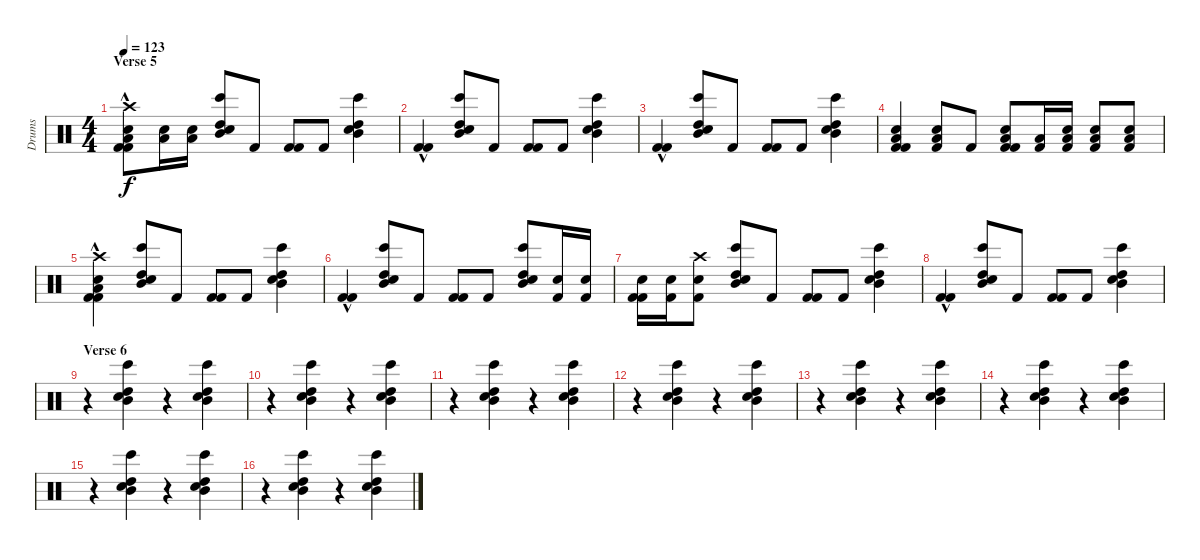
\track ("Drums" "Drums") {instrument percussion}
\staff {score}
\articulation defaults
\ts (4 4)
\section ("" "Verse 5")
\tempo 123
\clef neutral
\ks c
("Crash high (hit)" "Snare (hit) 2" "Low Floor Tom (hit)" "Kick (hit) 2"{hac} "Kick (hit) 2"{hac}).8{dy f} ("Snare (hit) 2" "Low Floor Tom (hit)").16 ("Snare (hit) 2" "Low Floor Tom (hit)").16 ("Bongo High (hit)" "High Tom (hit)" "Mid Tom (hit)" "Snare (hit) 2").8 "Kick (hit) 2".8 ("Kick (hit) 2" "Kick (hit) 2").8 "Kick (hit) 2".8 ("Bongo High (hit)" "High Tom (hit)" "Mid Tom (hit)" "Snare (hit) 2").4 |
("Kick (hit) 2"{hac} "Kick (hit) 2"{hac}).4 ("Bongo High (hit)" "High Tom (hit)" "Mid Tom (hit)" "Snare (hit) 2").8 "Kick (hit) 2".8 ("Kick (hit) 2" "Kick (hit) 2").8 "Kick (hit) 2".8 ("Bongo High (hit)" "High Tom (hit)" "Mid Tom (hit)" "Snare (hit) 2").4 |
("Kick (hit) 2"{hac} "Kick (hit) 2"{hac}).4 ("Bongo High (hit)" "High Tom (hit)" "Mid Tom (hit)" "Snare (hit) 2").8 "Kick (hit) 2".8 ("Kick (hit) 2" "Kick (hit) 2").8 "Kick (hit) 2".8 ("Bongo High (hit)" "High Tom (hit)" "Mid Tom (hit)" "Snare (hit) 2").4 |
("Snare (hit) 2" "Low Floor Tom (hit)" "Kick (hit) 2" "Kick (hit) 2").4 ("Snare (hit) 2" "Low Floor Tom (hit)" "Kick (hit) 2").8 "Kick (hit) 2".8 ("Snare (hit) 2" "Low Floor Tom (hit)" "Kick (hit) 2" "Kick (hit) 2").8 ("Low Floor Tom (hit)" "Kick (hit) 2").16 ("Snare (hit) 2" "Low Floor Tom (hit)" "Kick (hit) 2").16 ("Snare (hit) 2" "Low Floor Tom (hit)" "Kick (hit) 2").8 ("Snare (hit) 2" "Low Floor Tom (hit)" "Kick (hit) 2").8 |
("Crash high (hit)" "Snare (hit) 2" "Low Floor Tom (hit)" "Kick (hit) 2"{hac} "Kick (hit) 2"{hac}).4 ("Bongo High (hit)" "High Tom (hit)" "Mid Tom (hit)" "Snare (hit) 2").8 "Kick (hit) 2".8 ("Kick (hit) 2" "Kick (hit) 2").8 "Kick (hit) 2".8 ("Bongo High (hit)" "High Tom (hit)" "Mid Tom (hit)" "Snare (hit) 2").4 |
("Kick (hit) 2"{hac} "Kick (hit) 2"{hac}).4 ("Bongo High (hit)" "High Tom (hit)" "Mid Tom (hit)" "Snare (hit) 2").8 "Kick (hit) 2".8 ("Kick (hit) 2" "Kick (hit) 2").8 "Kick (hit) 2".8 ("Bongo High (hit)" "High Tom (hit)" "Mid Tom (hit)" "Snare (hit) 2").8 ("Snare (hit) 2" "Kick (hit) 2").16 ("Snare (hit) 2" "Kick (hit) 2").16 |
("Snare (hit) 2" "Kick (hit) 2" "Kick (hit) 2").16 ("Snare (hit) 2" "Kick (hit) 2").16 ("Crash high (hit)" "Snare (hit) 2" "Kick (hit) 2").8 ("Bongo High (hit)" "High Tom (hit)" "Mid Tom (hit)" "Snare (hit) 2").8 "Kick (hit) 2".8 ("Kick (hit) 2" "Kick (hit) 2").8 "Kick (hit) 2".8 ("Bongo High (hit)" "High Tom (hit)" "Mid Tom (hit)" "Snare (hit) 2").4 |
("Kick (hit) 2"{hac} "Kick (hit) 2"{hac}).4 ("Bongo High (hit)" "High Tom (hit)" "Mid Tom (hit)" "Snare (hit) 2").8 "Kick (hit) 2".8 ("Kick (hit) 2" "Kick (hit) 2").8 "Kick (hit) 2".8 ("Bongo High (hit)" "High Tom (hit)" "Mid Tom (hit)" "Snare (hit) 2").4 |
\section ("" "Verse 6")
r.4 ("Bongo High (hit)" "High Tom (hit)" "Mid Tom (hit)" "Snare (hit) 2").4 r.4 ("Bongo High (hit)" "High Tom (hit)" "Mid Tom (hit)" "Snare (hit) 2").4 |
r.4 ("Bongo High (hit)" "High Tom (hit)" "Mid Tom (hit)" "Snare (hit) 2").4 r.4 ("Bongo High (hit)" "High Tom (hit)" "Mid Tom (hit)" "Snare (hit) 2").4 |
r.4 ("Bongo High (hit)" "High Tom (hit)" "Mid Tom (hit)" "Snare (hit) 2").4 r.4 ("Bongo High (hit)" "High Tom (hit)" "Mid Tom (hit)" "Snare (hit) 2").4 |
r.4 ("Bongo High (hit)" "High Tom (hit)" "Mid Tom (hit)" "Snare (hit) 2").4 r.4 ("Bongo High (hit)" "High Tom (hit)" "Mid Tom (hit)" "Snare (hit) 2").4 |
r.4 ("Bongo High (hit)" "High Tom (hit)" "Mid Tom (hit)" "Snare (hit) 2").4 r.4 ("Bongo High (hit)" "High Tom (hit)" "Mid Tom (hit)" "Snare (hit) 2").4 |
r.4 ("Bongo High (hit)" "High Tom (hit)" "Mid Tom (hit)" "Snare (hit) 2").4 r.4 ("Bongo High (hit)" "High Tom (hit)" "Mid Tom (hit)" "Snare (hit) 2").4 |
r.4 ("Bongo High (hit)" "High Tom (hit)" "Mid Tom (hit)" "Snare (hit) 2").4 r.4 ("Bongo High (hit)" "High Tom (hit)" "Mid Tom (hit)" "Snare (hit) 2").4 |
r.4 ("Bongo High (hit)" "High Tom (hit)" "Mid Tom (hit)" "Snare (hit) 2").4 r.4 ("Bongo High (hit)" "High Tom (hit)" "Mid Tom (hit)" "Snare (hit) 2").4
